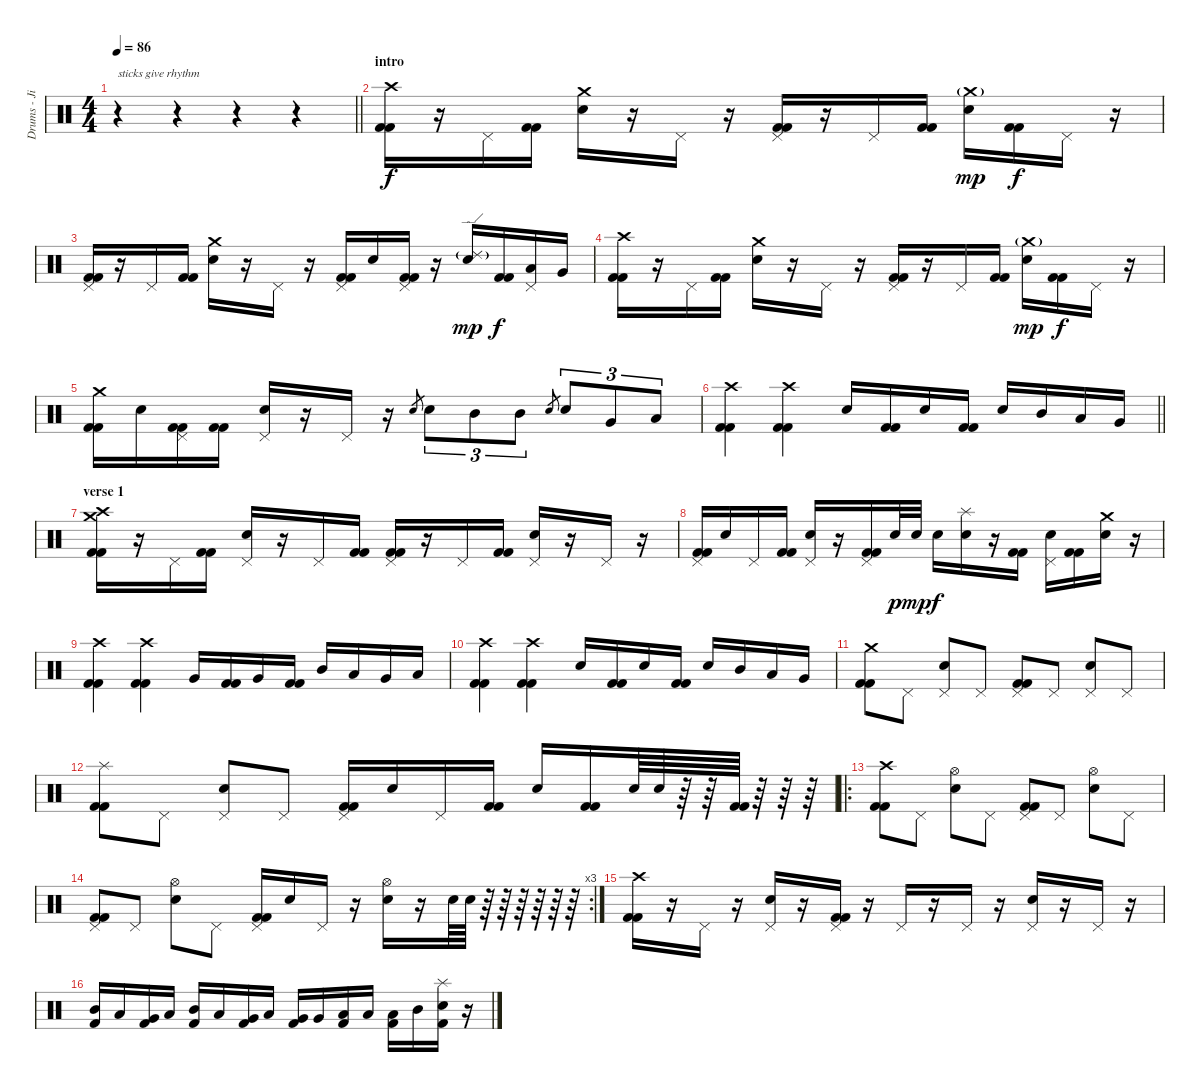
\track ("Drums - Jimmy" "Drums - Ji") {instrument percussion}
\staff {score}
\articulation defaults
\ts (4 4)
\tempo 86
\clef neutral
\barLineRight lightlight
\ks c
r.4{txt "sticks give rhythm" dy f} r.4 r.4 r.4 |
\section ("" "intro")
("Crash high (hit)" "Kick (hit) 2" "Kick (hit) 2").16 r.16 "Pedal Hi-Hat (hit)".16 ("Kick (hit) 2" "Kick (hit) 2").16 ("Crash medium (hit)" "Electric Snare (hit)").16 r.16 "Pedal Hi-Hat (hit)".16 r.16 ("Pedal Hi-Hat (hit)" "Kick (hit) 2" "Kick (hit) 2").16 r.16 "Pedal Hi-Hat (hit)".16 ("Kick (hit) 2" "Kick (hit) 2").16 ("Crash medium (hit)"{g} "Electric Snare (hit)").16{dy mp} ("Kick (hit) 2" "Kick (hit) 2").16{dy f} "Pedal Hi-Hat (hit)".16 r.16 |
("Pedal Hi-Hat (hit)" "Kick (hit) 2" "Kick (hit) 2").16 r.16 "Pedal Hi-Hat (hit)".16 ("Kick (hit) 2" "Kick (hit) 2").16 ("Crash medium (hit)" "Electric Snare (hit)").16 r.16 "Pedal Hi-Hat (hit)".16 r.16 ("Pedal Hi-Hat (hit)" "Kick (hit) 2" "Kick (hit) 2").16 "Electric Snare (hit)".16 ("Pedal Hi-Hat (hit)" "Kick (hit) 2" "Kick (hit) 2").16 r.16 ("Ride (edge) 2"{g} "Electric Snare (hit)").16{dy mp} ("Kick (hit) 2" "Kick (hit) 2").16{dy f} ("Pedal Hi-Hat (hit)" "Low Tom (hit)").16 "Very Low Tom (hit)".16 |
("Crash high (hit)" "Kick (hit) 2" "Kick (hit) 2").16 r.16 "Pedal Hi-Hat (hit)".16 ("Kick (hit) 2" "Kick (hit) 2").16 ("Crash medium (hit)" "Electric Snare (hit)").16 r.16 "Pedal Hi-Hat (hit)".16 r.16 ("Pedal Hi-Hat (hit)" "Kick (hit) 2" "Kick (hit) 2").16 r.16 "Pedal Hi-Hat (hit)".16 ("Kick (hit) 2" "Kick (hit) 2").16 ("Crash medium (hit)"{g} "Electric Snare (hit)").16{dy mp} ("Kick (hit) 2" "Kick (hit) 2").16{dy f} "Pedal Hi-Hat (hit)".16 r.16 |
("Crash medium (hit)" "Kick (hit) 2" "Kick (hit) 2").16 "Electric Snare (hit)".16 ("Pedal Hi-Hat (hit)" "Kick (hit) 2" "Kick (hit) 2").16 ("Kick (hit) 2" "Kick (hit) 2").16 ("Pedal Hi-Hat (hit)" "Electric Snare (hit)").16 r.16 "Pedal Hi-Hat (hit)".16 r.16 "Electric Snare (hit)".8{gr} "Electric Snare (hit)".8{tu (3 2)} "Mid Tom (hit)".8{tu (3 2)} "Mid Tom (hit)".8{tu (3 2)} "Electric Snare (hit)".8{gr} "Electric Snare (hit)".8{tu (3 2)} "Very Low Tom (hit)".8{tu (3 2)} "Low Floor Tom (hit)".8{tu (3 2)} |
\barLineRight lightlight
("Crash high (hit)" "Kick (hit) 2" "Kick (hit) 2").4 ("Crash high (hit)" "Kick (hit) 2" "Kick (hit) 2").4 "Electric Snare (hit)".16 ("Kick (hit) 2" "Kick (hit) 2").16 "Electric Snare (hit)".16 ("Kick (hit) 2" "Kick (hit) 2").16 "Electric Snare (hit)".16 "Mid Tom (hit)".16 "Low Tom (hit)".16 "Very Low Tom (hit)".16 |
\section ("" "verse 1 ")
("Crash medium (hit)" "Crash high (hit)" "Kick (hit) 2" "Kick (hit) 2").16 r.16 "Pedal Hi-Hat (hit)".16 ("Kick (hit) 2" "Kick (hit) 2").16 ("Pedal Hi-Hat (hit)" "Electric Snare (hit)").16 r.16 "Pedal Hi-Hat (hit)".16 ("Kick (hit) 2" "Kick (hit) 2").16 ("Pedal Hi-Hat (hit)" "Kick (hit) 2" "Kick (hit) 2").16 r.16 "Pedal Hi-Hat (hit)".16 ("Kick (hit) 2" "Kick (hit) 2").16 ("Pedal Hi-Hat (hit)" "Electric Snare (hit)").16 r.16 "Pedal Hi-Hat (hit)".16 r.16 |
("Pedal Hi-Hat (hit)" "Kick (hit) 2" "Kick (hit) 2").16 "Electric Snare (hit)".16 "Pedal Hi-Hat (hit)".16 ("Kick (hit) 2" "Kick (hit) 2").16 ("Pedal Hi-Hat (hit)" "Electric Snare (hit)").16 r.16 ("Pedal Hi-Hat (hit)" "Kick (hit) 2" "Kick (hit) 2").16 "Electric Snare (hit)".32{dy p} "Electric Snare (hit)".32{dy mp} "Electric Snare (hit)".16{dy f} ("Splash (hit)" "Electric Snare (hit)").16 r.16 ("Kick (hit) 2" "Kick (hit) 2").16 ("Pedal Hi-Hat (hit)" "Electric Snare (hit)").16 ("Kick (hit) 2" "Kick (hit) 2").16 ("Crash medium (hit)" "Electric Snare (hit)").16 r.16 |
("Crash high (hit)" "Kick (hit) 2" "Kick (hit) 2").4 ("Crash high (hit)" "Kick (hit) 2" "Kick (hit) 2").4 "Very Low Tom (hit)".16 ("Kick (hit) 2" "Kick (hit) 2").16 "Very Low Tom (hit)".16 ("Kick (hit) 2" "Kick (hit) 2").16 "Mid Tom (hit)".16 "Low Tom (hit)".16 "Very Low Tom (hit)".16 "Low Floor Tom (hit)".16 |
("Crash high (hit)" "Kick (hit) 2" "Kick (hit) 2").4 ("Crash high (hit)" "Kick (hit) 2" "Kick (hit) 2").4 "Electric Snare (hit)".16 ("Kick (hit) 2" "Kick (hit) 2").16 "Electric Snare (hit)".16 ("Kick (hit) 2" "Kick (hit) 2").16 "Electric Snare (hit)".16 "Mid Tom (hit)".16 "Low Tom (hit)".16 "Very Low Tom (hit)".16 |
("Crash medium (hit)" "Kick (hit) 2" "Kick (hit) 2").8 "Pedal Hi-Hat (hit)".8 ("Pedal Hi-Hat (hit)" "Electric Snare (hit)").8 "Pedal Hi-Hat (hit)".8 ("Pedal Hi-Hat (hit)" "Kick (hit) 2" "Kick (hit) 2").8 "Pedal Hi-Hat (hit)".8 ("Pedal Hi-Hat (hit)" "Electric Snare (hit)").8 "Pedal Hi-Hat (hit)".8 |
("Splash (hit)" "Kick (hit) 2" "Kick (hit) 2").8 "Pedal Hi-Hat (hit)".8 ("Pedal Hi-Hat (hit)" "Electric Snare (hit)").8 "Pedal Hi-Hat (hit)".8 ("Pedal Hi-Hat (hit)" "Kick (hit) 2" "Kick (hit) 2").16 "Electric Snare (hit)".16 "Pedal Hi-Hat (hit)".16 ("Kick (hit) 2" "Kick (hit) 2").16 "Electric Snare (hit)".16 ("Kick (hit) 2" "Kick (hit) 2").16 "Electric Snare (hit)".64 "Electric Snare (hit)".64 r.64 r.64 ("Kick (hit) 2" "Kick (hit) 2").64 r.64 r.64 r.64 |
\ro
("Crash high (hit)" "Kick (hit) 2" "Kick (hit) 2").8 "Pedal Hi-Hat (hit)".8 ("Hi-Hat (open)" "Electric Snare (hit)").8 "Pedal Hi-Hat (hit)".8 ("Pedal Hi-Hat (hit)" "Kick (hit) 2" "Kick (hit) 2").8 "Pedal Hi-Hat (hit)".8 ("Hi-Hat (open)" "Electric Snare (hit)").8 "Pedal Hi-Hat (hit)".8 |
\rc 3
("Pedal Hi-Hat (hit)" "Kick (hit) 2" "Kick (hit) 2").8 "Pedal Hi-Hat (hit)".8 ("Hi-Hat (open)" "Electric Snare (hit)").8 "Pedal Hi-Hat (hit)".8 ("Pedal Hi-Hat (hit)" "Kick (hit) 2" "Kick (hit) 2").16 "Electric Snare (hit)".16 "Pedal Hi-Hat (hit)".16 r.16 ("Hi-Hat (open)" "Electric Snare (hit)").16 r.16 "Electric Snare (hit)".64 "Electric Snare (hit)".64 r.64 r.64 r.64 r.64 r.64 r.64 |
("Crash high (hit)" "Kick (hit) 2" "Kick (hit) 2").16 r.16 "Pedal Hi-Hat (hit)".16 r.16 ("Pedal Hi-Hat (hit)" "Electric Snare (hit)").16 r.16 ("Pedal Hi-Hat (hit)" "Kick (hit) 2" "Kick (hit) 2").16 r.16 "Pedal Hi-Hat (hit)".16 r.16 "Pedal Hi-Hat (hit)".16 r.16 ("Pedal Hi-Hat (hit)" "Electric Snare (hit)").16 r.16 "Pedal Hi-Hat (hit)".16 r.16 |
("Mid Tom (hit)" "Kick (hit) 2").16 "Low Tom (hit)".16 ("Very Low Tom (hit)" "Kick (hit) 2").16 "Low Floor Tom (hit)".16 ("Mid Tom (hit)" "Kick (hit) 2").16 "Low Tom (hit)".16 ("Very Low Tom (hit)" "Kick (hit) 2").16 "Low Floor Tom (hit)".16 ("Very Low Tom (hit)" "Kick (hit) 2").16 "Very Low Tom (hit)".16 ("Low Tom (hit)" "Kick (hit) 2").16 "Low Floor Tom (hit)".16 ("Low Tom (hit)" "Kick (hit) 2").16 "Mid Tom (hit)".16 ("Splash (hit)" "Electric Snare (hit)" "Kick (hit) 2").16 r.16
